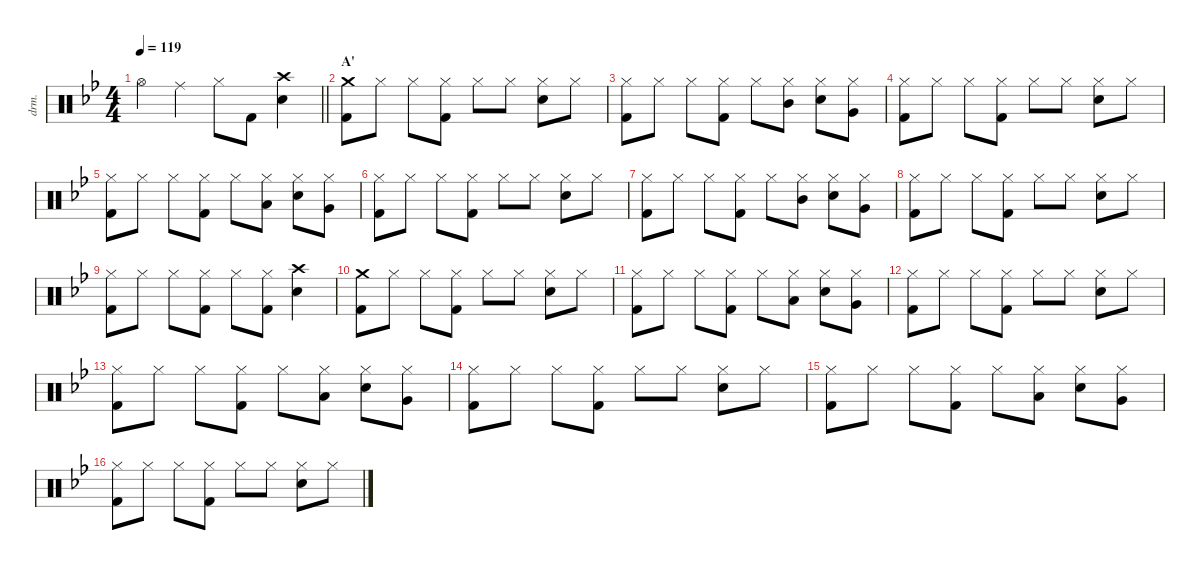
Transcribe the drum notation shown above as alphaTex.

\defaultSystemsLayout 4
\hideDynamics
\bracketExtendMode nobrackets
\otherSystemsTrackNameOrientation horizontal
\track ("Drums" "drm.") {instrument percussion}
\staff {score}
\articulation defaults
\ts (4 4)
\tempo 119
\clef neutral
\barLineRight lightlight
\ks bb "Hi-Hat (open)"{acc forcenatural}.4{dy f} "Ride (middle)"{acc forcenatural}.4 "Hi-Hat (closed)"{acc forcenatural}.8 "Kick (hit) 2"{acc forcenatural}.8
("Crash high (hit)"{acc forcenatural} "Snare (hit) 2"{acc forcenatural}).4 |
\section ("" "A'")
("Crash medium (hit)"{acc forcenatural} "Kick (hit) 2"{acc forcenatural}).8 "Hi-Hat (closed)"{acc forcenatural}.8 "Hi-Hat (closed)"{acc forcenatural}.8 ("Hi-Hat (closed)"{acc forcenatural} "Kick (hit) 2"{acc forcenatural}).8 "Hi-Hat (closed)"{acc forcenatural}.8 "Hi-Hat (closed)"{acc forcenatural}.8 ("Hi-Hat (closed)"{acc forcenatural} "Snare (hit) 2"{acc forcenatural}).8 "Hi-Hat (closed)"{acc forcenatural}.8 |
("Hi-Hat (closed)"{acc forcenatural} "Kick (hit) 2"{acc forcenatural}).8 "Hi-Hat (closed)"{acc forcenatural}.8 "Hi-Hat (closed)"{acc forcenatural}.8 ("Hi-Hat (closed)"{acc forcenatural} "Kick (hit) 2"{acc forcenatural}).8 "Hi-Hat (closed)"{acc forcenatural}.8 ("Mid Tom (hit)"{acc forcenatural} "Hi-Hat (closed)"{acc forcenatural}).8 ("Hi-Hat (closed)"{acc forcenatural} "Snare (hit) 2"{acc forcenatural}).8 ("Very Low Tom (hit)"{acc forcenatural} "Hi-Hat (closed)"{acc forcenatural}).8 |
("Hi-Hat (closed)"{acc forcenatural} "Kick (hit) 2"{acc forcenatural}).8 "Hi-Hat (closed)"{acc forcenatural}.8 "Hi-Hat (closed)"{acc forcenatural}.8 ("Hi-Hat (closed)"{acc forcenatural} "Kick (hit) 2"{acc forcenatural}).8 "Hi-Hat (closed)"{acc forcenatural}.8 "Hi-Hat (closed)"{acc forcenatural}.8 ("Hi-Hat (closed)"{acc forcenatural} "Snare (hit) 2"{acc forcenatural}).8 "Hi-Hat (closed)"{acc forcenatural}.8 |
("Hi-Hat (closed)"{acc forcenatural} "Kick (hit) 2"{acc forcenatural}).8 "Hi-Hat (closed)"{acc forcenatural}.8 "Hi-Hat (closed)"{acc forcenatural}.8 ("Hi-Hat (closed)"{acc forcenatural} "Kick (hit) 2"{acc forcenatural}).8 "Hi-Hat (closed)"{acc forcenatural}.8 ("Low Tom (hit)"{acc forcenatural} "Hi-Hat (closed)"{acc forcenatural}).8 ("Hi-Hat (closed)"{acc forcenatural} "Snare (hit) 2"{acc forcenatural}).8 ("Very Low Tom (hit)"{acc forcenatural} "Hi-Hat (closed)"{acc forcenatural}).8 |
("Hi-Hat (closed)"{acc forcenatural} "Kick (hit) 2"{acc forcenatural}).8 "Hi-Hat (closed)"{acc forcenatural}.8 "Hi-Hat (closed)"{acc forcenatural}.8 ("Hi-Hat (closed)"{acc forcenatural} "Kick (hit) 2"{acc forcenatural}).8 "Hi-Hat (closed)"{acc forcenatural}.8 "Hi-Hat (closed)"{acc forcenatural}.8 ("Hi-Hat (closed)"{acc forcenatural} "Snare (hit) 2"{acc forcenatural}).8 "Hi-Hat (closed)"{acc forcenatural}.8 |
("Hi-Hat (closed)"{acc forcenatural} "Kick (hit) 2"{acc forcenatural}).8 "Hi-Hat (closed)"{acc forcenatural}.8 "Hi-Hat (closed)"{acc forcenatural}.8 ("Hi-Hat (closed)"{acc forcenatural} "Kick (hit) 2"{acc forcenatural}).8 "Hi-Hat (closed)"{acc forcenatural}.8 ("Mid Tom (hit)"{acc forcenatural} "Hi-Hat (closed)"{acc forcenatural}).8 ("Hi-Hat (closed)"{acc forcenatural} "Snare (hit) 2"{acc forcenatural}).8 ("Very Low Tom (hit)"{acc forcenatural} "Hi-Hat (closed)"{acc forcenatural}).8 |
("Hi-Hat (closed)"{acc forcenatural} "Kick (hit) 2"{acc forcenatural}).8 "Hi-Hat (closed)"{acc forcenatural}.8 "Hi-Hat (closed)"{acc forcenatural}.8 ("Hi-Hat (closed)"{acc forcenatural} "Kick (hit) 2"{acc forcenatural}).8 "Hi-Hat (closed)"{acc forcenatural}.8 "Hi-Hat (closed)"{acc forcenatural}.8 ("Hi-Hat (closed)"{acc forcenatural} "Snare (hit) 2"{acc forcenatural}).8 "Hi-Hat (closed)"{acc forcenatural}.8 |
("Hi-Hat (closed)"{acc forcenatural} "Kick (hit) 2"{acc forcenatural}).8 "Hi-Hat (closed)"{acc forcenatural}.8 "Hi-Hat (closed)"{acc forcenatural}.8 ("Hi-Hat (closed)"{acc forcenatural} "Kick (hit) 2"{acc forcenatural}).8 "Hi-Hat (closed)"{acc forcenatural}.8 ("Hi-Hat (closed)"{acc forcenatural} "Kick (hit) 2"{acc forcenatural}).8 ("Crash high (hit)"{acc forcenatural} "Snare (hit) 2"{acc forcenatural}).4 |
("Crash medium (hit)"{acc forcenatural} "Kick (hit) 2"{acc forcenatural}).8 "Hi-Hat (closed)"{acc forcenatural}.8 "Hi-Hat (closed)"{acc forcenatural}.8 ("Hi-Hat (closed)"{acc forcenatural} "Kick (hit) 2"{acc forcenatural}).8 "Hi-Hat (closed)"{acc forcenatural}.8 "Hi-Hat (closed)"{acc forcenatural}.8 ("Hi-Hat (closed)"{acc forcenatural} "Snare (hit) 2"{acc forcenatural}).8 "Hi-Hat (closed)"{acc forcenatural}.8 |
("Hi-Hat (closed)"{acc forcenatural} "Kick (hit) 2"{acc forcenatural}).8 "Hi-Hat (closed)"{acc forcenatural}.8 "Hi-Hat (closed)"{acc forcenatural}.8 ("Hi-Hat (closed)"{acc forcenatural} "Kick (hit) 2"{acc forcenatural}).8 "Hi-Hat (closed)"{acc forcenatural}.8 ("Low Tom (hit)"{acc forcenatural} "Hi-Hat (closed)"{acc forcenatural}).8 ("Hi-Hat (closed)"{acc forcenatural} "Snare (hit) 2"{acc forcenatural}).8 ("Very Low Tom (hit)"{acc forcenatural} "Hi-Hat (closed)"{acc forcenatural}).8 |
("Hi-Hat (closed)"{acc forcenatural} "Kick (hit) 2"{acc forcenatural}).8 "Hi-Hat (closed)"{acc forcenatural}.8 "Hi-Hat (closed)"{acc forcenatural}.8 ("Hi-Hat (closed)"{acc forcenatural} "Kick (hit) 2"{acc forcenatural}).8 "Hi-Hat (closed)"{acc forcenatural}.8 "Hi-Hat (closed)"{acc forcenatural}.8 ("Hi-Hat (closed)"{acc forcenatural} "Snare (hit) 2"{acc forcenatural}).8 "Hi-Hat (closed)"{acc forcenatural}.8 |
("Hi-Hat (closed)"{acc forcenatural} "Kick (hit) 2"{acc forcenatural}).8 "Hi-Hat (closed)"{acc forcenatural}.8 "Hi-Hat (closed)"{acc forcenatural}.8 ("Hi-Hat (closed)"{acc forcenatural} "Kick (hit) 2"{acc forcenatural}).8 "Hi-Hat (closed)"{acc forcenatural}.8 ("Low Tom (hit)"{acc forcenatural} "Hi-Hat (closed)"{acc forcenatural}).8 ("Hi-Hat (closed)"{acc forcenatural} "Snare (hit) 2"{acc forcenatural}).8 ("Very Low Tom (hit)"{acc forcenatural} "Hi-Hat (closed)"{acc forcenatural}).8 |
("Hi-Hat (closed)"{acc forcenatural} "Kick (hit) 2"{acc forcenatural}).8 "Hi-Hat (closed)"{acc forcenatural}.8 "Hi-Hat (closed)"{acc forcenatural}.8 ("Hi-Hat (closed)"{acc forcenatural} "Kick (hit) 2"{acc forcenatural}).8 "Hi-Hat (closed)"{acc forcenatural}.8 "Hi-Hat (closed)"{acc forcenatural}.8 ("Hi-Hat (closed)"{acc forcenatural} "Snare (hit) 2"{acc forcenatural}).8 "Hi-Hat (closed)"{acc forcenatural}.8 |
("Hi-Hat (closed)"{acc forcenatural} "Kick (hit) 2"{acc forcenatural}).8 "Hi-Hat (closed)"{acc forcenatural}.8 "Hi-Hat (closed)"{acc forcenatural}.8 ("Hi-Hat (closed)"{acc forcenatural} "Kick (hit) 2"{acc forcenatural}).8 "Hi-Hat (closed)"{acc forcenatural}.8 ("Low Tom (hit)"{acc forcenatural} "Hi-Hat (closed)"{acc forcenatural}).8 ("Hi-Hat (closed)"{acc forcenatural} "Snare (hit) 2"{acc forcenatural}).8 ("Very Low Tom (hit)"{acc forcenatural} "Hi-Hat (closed)"{acc forcenatural}).8 |
("Hi-Hat (closed)"{acc forcenatural} "Kick (hit) 2"{acc forcenatural}).8 "Hi-Hat (closed)"{acc forcenatural}.8 "Hi-Hat (closed)"{acc forcenatural}.8 ("Hi-Hat (closed)"{acc forcenatural} "Kick (hit) 2"{acc forcenatural}).8 "Hi-Hat (closed)"{acc forcenatural}.8 "Hi-Hat (closed)"{acc forcenatural}.8 ("Hi-Hat (closed)"{acc forcenatural} "Snare (hit) 2"{acc forcenatural}).8 "Hi-Hat (closed)"{acc forcenatural}.8
